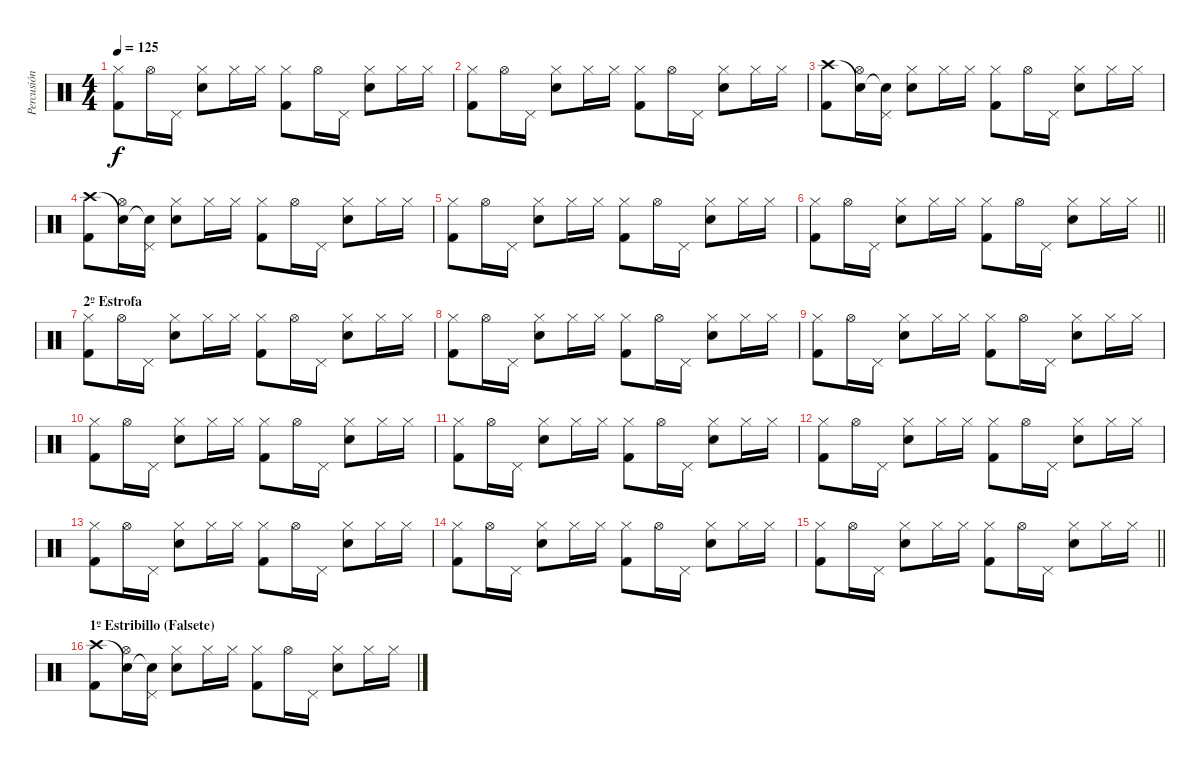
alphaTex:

\track ("Percusión" "Percusión") {instrument percussion}
\staff {score}
\articulation defaults
\ts (4 4)
\tempo 125
\clef neutral
\ks c
("Hi-Hat (closed)" "Kick (hit) 2").8{dy f} "Hi-Hat (open)".16 "Pedal Hi-Hat (hit)".16 ("Hi-Hat (closed)" "Snare (hit) 2").8 "Hi-Hat (closed)".16 "Hi-Hat (closed)".16 ("Hi-Hat (closed)" "Kick (hit) 2").8 "Hi-Hat (open)".16 "Pedal Hi-Hat (hit)".16 ("Hi-Hat (closed)" "Snare (hit) 2").8 "Hi-Hat (closed)".16 "Hi-Hat (closed)".16 |
("Hi-Hat (closed)" "Kick (hit) 2").8 "Hi-Hat (open)".16 "Pedal Hi-Hat (hit)".16 ("Hi-Hat (closed)" "Snare (hit) 2").8 "Hi-Hat (closed)".16 "Hi-Hat (closed)".16 ("Hi-Hat (closed)" "Kick (hit) 2").8 "Hi-Hat (open)".16 "Pedal Hi-Hat (hit)".16 ("Hi-Hat (closed)" "Snare (hit) 2").8 "Hi-Hat (closed)".16 "Hi-Hat (closed)".16 |
("Crash high (hit)" "Kick (hit) 2").8 ("Snare (hit)"{t} "Hi-Hat (open)").16 ("Snare (hit)"{t} "Pedal Hi-Hat (hit)").16 ("Hi-Hat (closed)" "Snare (hit) 2").8 "Hi-Hat (closed)".16 "Hi-Hat (closed)".16 ("Hi-Hat (closed)" "Kick (hit) 2").8 "Hi-Hat (open)".16 "Pedal Hi-Hat (hit)".16 ("Hi-Hat (closed)" "Snare (hit) 2").8 "Hi-Hat (closed)".16 "Hi-Hat (closed)".16 |
("Crash high (hit)" "Kick (hit) 2").8 ("Snare (hit)"{t} "Hi-Hat (open)").16 ("Snare (hit)"{t} "Pedal Hi-Hat (hit)").16 ("Hi-Hat (closed)" "Snare (hit) 2").8 "Hi-Hat (closed)".16 "Hi-Hat (closed)".16 ("Hi-Hat (closed)" "Kick (hit) 2").8 "Hi-Hat (open)".16 "Pedal Hi-Hat (hit)".16 ("Hi-Hat (closed)" "Snare (hit) 2").8 "Hi-Hat (closed)".16 "Hi-Hat (closed)".16 |
("Hi-Hat (closed)" "Kick (hit) 2").8 "Hi-Hat (open)".16 "Pedal Hi-Hat (hit)".16 ("Hi-Hat (closed)" "Snare (hit) 2").8 "Hi-Hat (closed)".16 "Hi-Hat (closed)".16 ("Hi-Hat (closed)" "Kick (hit) 2").8 "Hi-Hat (open)".16 "Pedal Hi-Hat (hit)".16 ("Hi-Hat (closed)" "Snare (hit) 2").8 "Hi-Hat (closed)".16 "Hi-Hat (closed)".16 |
\barLineRight lightlight
("Hi-Hat (closed)" "Kick (hit) 2").8 "Hi-Hat (open)".16 "Pedal Hi-Hat (hit)".16 ("Hi-Hat (closed)" "Snare (hit) 2").8 "Hi-Hat (closed)".16 "Hi-Hat (closed)".16 ("Hi-Hat (closed)" "Kick (hit) 2").8 "Hi-Hat (open)".16 "Pedal Hi-Hat (hit)".16 ("Hi-Hat (closed)" "Snare (hit) 2").8 "Hi-Hat (closed)".16 "Hi-Hat (closed)".16 |
\section ("" "2º Estrofa")
("Hi-Hat (closed)" "Kick (hit) 2").8 "Hi-Hat (open)".16 "Pedal Hi-Hat (hit)".16 ("Hi-Hat (closed)" "Snare (hit) 2").8 "Hi-Hat (closed)".16 "Hi-Hat (closed)".16 ("Hi-Hat (closed)" "Kick (hit) 2").8 "Hi-Hat (open)".16 "Pedal Hi-Hat (hit)".16 ("Hi-Hat (closed)" "Snare (hit) 2").8 "Hi-Hat (closed)".16 "Hi-Hat (closed)".16 |
("Hi-Hat (closed)" "Kick (hit) 2").8 "Hi-Hat (open)".16 "Pedal Hi-Hat (hit)".16 ("Hi-Hat (closed)" "Snare (hit) 2").8 "Hi-Hat (closed)".16 "Hi-Hat (closed)".16 ("Hi-Hat (closed)" "Kick (hit) 2").8 "Hi-Hat (open)".16 "Pedal Hi-Hat (hit)".16 ("Hi-Hat (closed)" "Snare (hit) 2").8 "Hi-Hat (closed)".16 "Hi-Hat (closed)".16 |
("Hi-Hat (closed)" "Kick (hit) 2").8 "Hi-Hat (open)".16 "Pedal Hi-Hat (hit)".16 ("Hi-Hat (closed)" "Snare (hit) 2").8 "Hi-Hat (closed)".16 "Hi-Hat (closed)".16 ("Hi-Hat (closed)" "Kick (hit) 2").8 "Hi-Hat (open)".16 "Pedal Hi-Hat (hit)".16 ("Hi-Hat (closed)" "Snare (hit) 2").8 "Hi-Hat (closed)".16 "Hi-Hat (closed)".16 |
("Hi-Hat (closed)" "Kick (hit) 2").8 "Hi-Hat (open)".16 "Pedal Hi-Hat (hit)".16 ("Hi-Hat (closed)" "Snare (hit) 2").8 "Hi-Hat (closed)".16 "Hi-Hat (closed)".16 ("Hi-Hat (closed)" "Kick (hit) 2").8 "Hi-Hat (open)".16 "Pedal Hi-Hat (hit)".16 ("Hi-Hat (closed)" "Snare (hit) 2").8 "Hi-Hat (closed)".16 "Hi-Hat (closed)".16 |
("Hi-Hat (closed)" "Kick (hit) 2").8 "Hi-Hat (open)".16 "Pedal Hi-Hat (hit)".16 ("Hi-Hat (closed)" "Snare (hit) 2").8 "Hi-Hat (closed)".16 "Hi-Hat (closed)".16 ("Hi-Hat (closed)" "Kick (hit) 2").8 "Hi-Hat (open)".16 "Pedal Hi-Hat (hit)".16 ("Hi-Hat (closed)" "Snare (hit) 2").8 "Hi-Hat (closed)".16 "Hi-Hat (closed)".16 |
("Hi-Hat (closed)" "Kick (hit) 2").8 "Hi-Hat (open)".16 "Pedal Hi-Hat (hit)".16 ("Hi-Hat (closed)" "Snare (hit) 2").8 "Hi-Hat (closed)".16 "Hi-Hat (closed)".16 ("Hi-Hat (closed)" "Kick (hit) 2").8 "Hi-Hat (open)".16 "Pedal Hi-Hat (hit)".16 ("Hi-Hat (closed)" "Snare (hit) 2").8 "Hi-Hat (closed)".16 "Hi-Hat (closed)".16 |
("Hi-Hat (closed)" "Kick (hit) 2").8 "Hi-Hat (open)".16 "Pedal Hi-Hat (hit)".16 ("Hi-Hat (closed)" "Snare (hit) 2").8 "Hi-Hat (closed)".16 "Hi-Hat (closed)".16 ("Hi-Hat (closed)" "Kick (hit) 2").8 "Hi-Hat (open)".16 "Pedal Hi-Hat (hit)".16 ("Hi-Hat (closed)" "Snare (hit) 2").8 "Hi-Hat (closed)".16 "Hi-Hat (closed)".16 |
("Hi-Hat (closed)" "Kick (hit) 2").8 "Hi-Hat (open)".16 "Pedal Hi-Hat (hit)".16 ("Hi-Hat (closed)" "Snare (hit) 2").8 "Hi-Hat (closed)".16 "Hi-Hat (closed)".16 ("Hi-Hat (closed)" "Kick (hit) 2").8 "Hi-Hat (open)".16 "Pedal Hi-Hat (hit)".16 ("Hi-Hat (closed)" "Snare (hit) 2").8 "Hi-Hat (closed)".16 "Hi-Hat (closed)".16 |
\barLineRight lightlight
("Hi-Hat (closed)" "Kick (hit) 2").8 "Hi-Hat (open)".16 "Pedal Hi-Hat (hit)".16 ("Hi-Hat (closed)" "Snare (hit) 2").8 "Hi-Hat (closed)".16 "Hi-Hat (closed)".16 ("Hi-Hat (closed)" "Kick (hit) 2").8 "Hi-Hat (open)".16 "Pedal Hi-Hat (hit)".16 ("Hi-Hat (closed)" "Snare (hit) 2").8 "Hi-Hat (closed)".16 "Hi-Hat (closed)".16 |
\section ("" "1º Estribillo (Falsete)")
("Crash high (hit)" "Kick (hit) 2").8 ("Snare (hit)"{t} "Hi-Hat (open)").16 ("Snare (hit)"{t} "Pedal Hi-Hat (hit)").16 ("Hi-Hat (closed)" "Snare (hit) 2").8 "Hi-Hat (closed)".16 "Hi-Hat (closed)".16 ("Hi-Hat (closed)" "Kick (hit) 2").8 "Hi-Hat (open)".16 "Pedal Hi-Hat (hit)".16 ("Hi-Hat (closed)" "Snare (hit) 2").8 "Hi-Hat (closed)".16 "Hi-Hat (closed)".16
